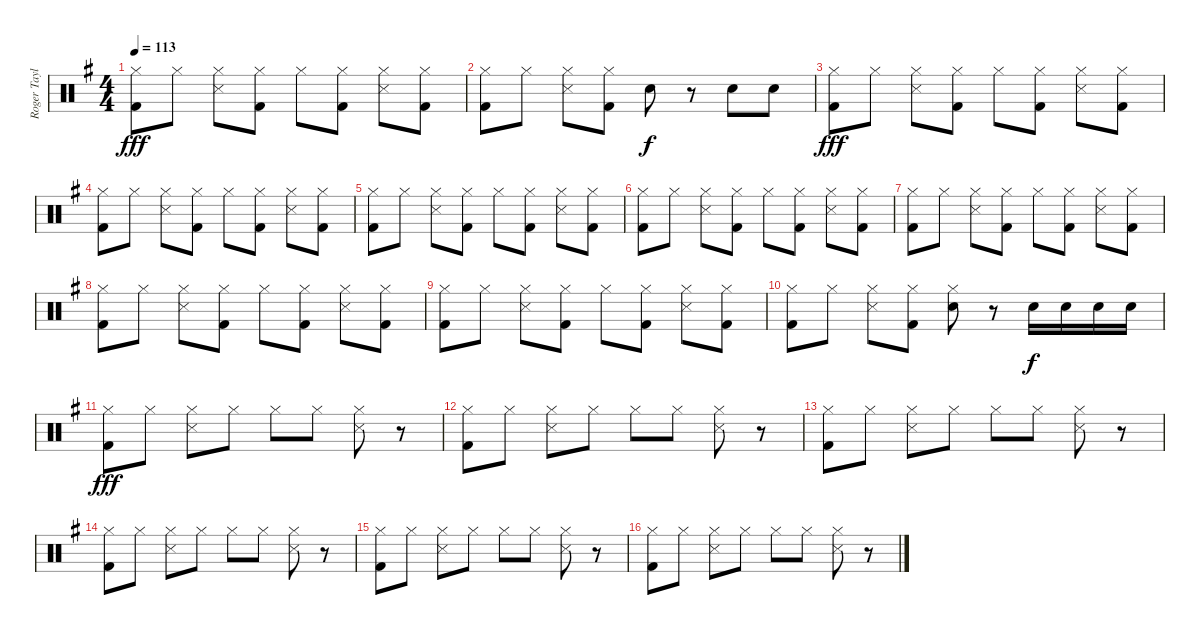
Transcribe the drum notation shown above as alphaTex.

\track ("Roger Taylor" "Roger Tayl") {instrument percussion}
\staff {score}
\articulation defaults
\ts (4 4)
\tempo 113
\clef neutral
\ks g
("Hi-Hat (closed)" "Kick (hit) 2").8{dy fff} "Hi-Hat (closed)".8 ("Hi-Hat (closed)" "Snare (side stick) 3").8 ("Hi-Hat (closed)" "Kick (hit) 2").8 "Hi-Hat (closed)".8 ("Hi-Hat (closed)" "Kick (hit) 2").8 ("Hi-Hat (closed)" "Snare (side stick) 3").8 ("Hi-Hat (closed)" "Kick (hit) 2").8 |
("Hi-Hat (closed)" "Kick (hit) 2").8 "Hi-Hat (closed)".8 ("Hi-Hat (closed)" "Snare (side stick) 3").8 ("Hi-Hat (closed)" "Kick (hit) 2").8 "Snare (hit) 2".8{dy f} r.8 "Snare (hit) 2".8 "Snare (hit) 2".8 |
("Hi-Hat (closed)" "Kick (hit) 2").8{dy fff} "Hi-Hat (closed)".8 ("Hi-Hat (closed)" "Snare (side stick) 3").8 ("Hi-Hat (closed)" "Kick (hit) 2").8 "Hi-Hat (closed)".8 ("Hi-Hat (closed)" "Kick (hit) 2").8 ("Hi-Hat (closed)" "Snare (side stick) 3").8 ("Hi-Hat (closed)" "Kick (hit) 2").8 |
("Hi-Hat (closed)" "Kick (hit) 2").8 "Hi-Hat (closed)".8 ("Hi-Hat (closed)" "Snare (side stick) 3").8 ("Hi-Hat (closed)" "Kick (hit) 2").8 "Hi-Hat (closed)".8 ("Hi-Hat (closed)" "Kick (hit) 2").8 ("Hi-Hat (closed)" "Snare (side stick) 3").8 ("Hi-Hat (closed)" "Kick (hit) 2").8 |
("Hi-Hat (closed)" "Kick (hit) 2").8 "Hi-Hat (closed)".8 ("Hi-Hat (closed)" "Snare (side stick) 3").8 ("Hi-Hat (closed)" "Kick (hit) 2").8 "Hi-Hat (closed)".8 ("Hi-Hat (closed)" "Kick (hit) 2").8 ("Hi-Hat (closed)" "Snare (side stick) 3").8 ("Hi-Hat (closed)" "Kick (hit) 2").8 |
("Hi-Hat (closed)" "Kick (hit) 2").8 "Hi-Hat (closed)".8 ("Hi-Hat (closed)" "Snare (side stick) 3").8 ("Hi-Hat (closed)" "Kick (hit) 2").8 "Hi-Hat (closed)".8 ("Hi-Hat (closed)" "Kick (hit) 2").8 ("Hi-Hat (closed)" "Snare (side stick) 3").8 ("Hi-Hat (closed)" "Kick (hit) 2").8 |
("Hi-Hat (closed)" "Kick (hit) 2").8 "Hi-Hat (closed)".8 ("Hi-Hat (closed)" "Snare (side stick) 3").8 ("Hi-Hat (closed)" "Kick (hit) 2").8 "Hi-Hat (closed)".8 ("Hi-Hat (closed)" "Kick (hit) 2").8 ("Hi-Hat (closed)" "Snare (side stick) 3").8 ("Hi-Hat (closed)" "Kick (hit) 2").8 |
("Hi-Hat (closed)" "Kick (hit) 2").8 "Hi-Hat (closed)".8 ("Hi-Hat (closed)" "Snare (side stick) 3").8 ("Hi-Hat (closed)" "Kick (hit) 2").8 "Hi-Hat (closed)".8 ("Hi-Hat (closed)" "Kick (hit) 2").8 ("Hi-Hat (closed)" "Snare (side stick) 3").8 ("Hi-Hat (closed)" "Kick (hit) 2").8 |
("Hi-Hat (closed)" "Kick (hit) 2").8 "Hi-Hat (closed)".8 ("Hi-Hat (closed)" "Snare (side stick) 3").8 ("Hi-Hat (closed)" "Kick (hit) 2").8 "Hi-Hat (closed)".8 ("Hi-Hat (closed)" "Kick (hit) 2").8 ("Hi-Hat (closed)" "Snare (side stick) 3").8 ("Hi-Hat (closed)" "Kick (hit) 2").8 |
("Hi-Hat (closed)" "Kick (hit) 2").8 "Hi-Hat (closed)".8 ("Hi-Hat (closed)" "Snare (side stick) 3").8 ("Hi-Hat (closed)" "Kick (hit) 2").8 ("Hi-Hat (closed)" "Snare (hit) 2").8 r.8 "Snare (hit) 2".16{dy f} "Snare (hit) 2".16 "Snare (hit) 2".16 "Snare (hit) 2".16 |
("Hi-Hat (closed)" "Kick (hit) 2").8{dy fff} "Hi-Hat (closed)".8 ("Hi-Hat (closed)" "Snare (side stick) 3").8 "Hi-Hat (closed)".8 "Hi-Hat (closed)".8 "Hi-Hat (closed)".8 ("Hi-Hat (closed)" "Snare (side stick) 3").8 r.8 |
("Hi-Hat (closed)" "Kick (hit) 2").8 "Hi-Hat (closed)".8 ("Hi-Hat (closed)" "Snare (side stick) 3").8 "Hi-Hat (closed)".8 "Hi-Hat (closed)".8 "Hi-Hat (closed)".8 ("Hi-Hat (closed)" "Snare (side stick) 3").8 r.8 |
("Hi-Hat (closed)" "Kick (hit) 2").8 "Hi-Hat (closed)".8 ("Hi-Hat (closed)" "Snare (side stick) 3").8 "Hi-Hat (closed)".8 "Hi-Hat (closed)".8 "Hi-Hat (closed)".8 ("Hi-Hat (closed)" "Snare (side stick) 3").8 r.8 |
("Hi-Hat (closed)" "Kick (hit) 2").8 "Hi-Hat (closed)".8 ("Hi-Hat (closed)" "Snare (side stick) 3").8 "Hi-Hat (closed)".8 "Hi-Hat (closed)".8 "Hi-Hat (closed)".8 ("Hi-Hat (closed)" "Snare (side stick) 3").8 r.8 |
("Hi-Hat (closed)" "Kick (hit) 2").8 "Hi-Hat (closed)".8 ("Hi-Hat (closed)" "Snare (side stick) 3").8 "Hi-Hat (closed)".8 "Hi-Hat (closed)".8 "Hi-Hat (closed)".8 ("Hi-Hat (closed)" "Snare (side stick) 3").8 r.8 |
("Hi-Hat (closed)" "Kick (hit) 2").8 "Hi-Hat (closed)".8 ("Hi-Hat (closed)" "Snare (side stick) 3").8 "Hi-Hat (closed)".8 "Hi-Hat (closed)".8 "Hi-Hat (closed)".8 ("Hi-Hat (closed)" "Snare (side stick) 3").8 r.8
